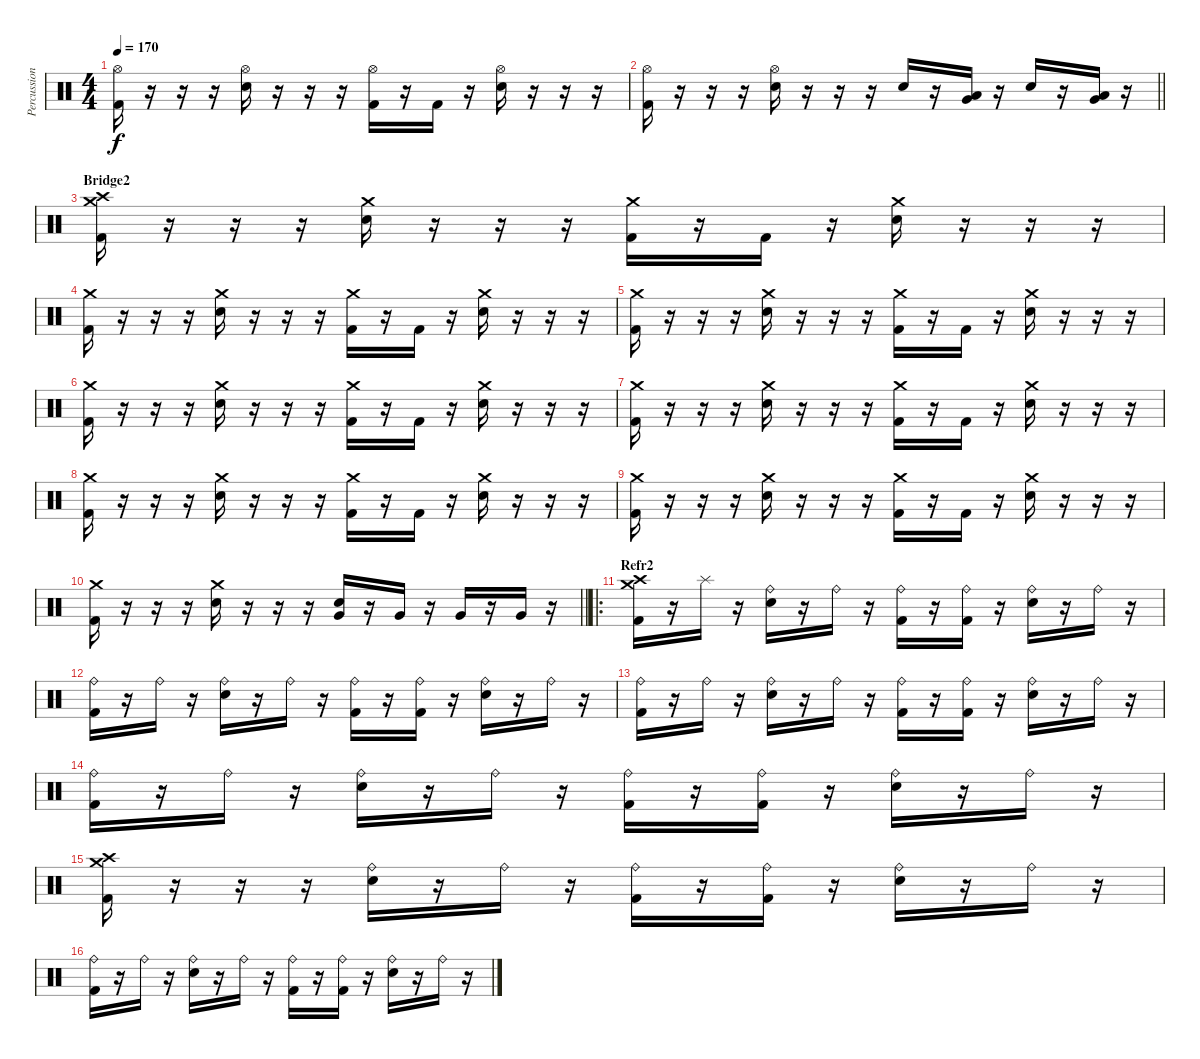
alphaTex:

\track ("Percussion" "Percussion") {instrument percussion}
\staff {score}
\articulation defaults
\ts (4 4)
\tempo 170
\clef neutral
\ks c
("Hi-Hat (open)" "Kick (hit) 2").16{dy f} r.16 r.16 r.16 ("Hi-Hat (open)" "Electric Snare (hit)").16 r.16 r.16 r.16 ("Hi-Hat (open)" "Kick (hit) 2").16 r.16 "Kick (hit) 2".16 r.16 ("Hi-Hat (open)" "Electric Snare (hit)").16 r.16 r.16 r.16 |
\barLineRight lightlight
("Hi-Hat (open)" "Kick (hit) 2").16 r.16 r.16 r.16 ("Hi-Hat (open)" "Electric Snare (hit)").16 r.16 r.16 r.16 "Electric Snare (hit)".16 r.16 ("Very Low Tom (hit)" "Low Floor Tom (hit)").16 r.16 "Electric Snare (hit)".16 r.16 ("Very Low Tom (hit)" "Low Floor Tom (hit)").16 r.16 |
\section ("" "Bridge2")
("Crash medium (hit)" "Crash high (hit)" "Kick (hit) 2").16 r.16 r.16 r.16 ("Crash medium (hit)" "Electric Snare (hit)").16 r.16 r.16 r.16 ("Crash medium (hit)" "Kick (hit) 2").16 r.16 "Kick (hit) 2".16 r.16 ("Crash medium (hit)" "Electric Snare (hit)").16 r.16 r.16 r.16 |
("Crash medium (hit)" "Kick (hit) 2").16 r.16 r.16 r.16 ("Crash medium (hit)" "Electric Snare (hit)").16 r.16 r.16 r.16 ("Crash medium (hit)" "Kick (hit) 2").16 r.16 "Kick (hit) 2".16 r.16 ("Crash medium (hit)" "Electric Snare (hit)").16 r.16 r.16 r.16 |
("Crash medium (hit)" "Kick (hit) 2").16 r.16 r.16 r.16 ("Crash medium (hit)" "Electric Snare (hit)").16 r.16 r.16 r.16 ("Crash medium (hit)" "Kick (hit) 2").16 r.16 "Kick (hit) 2".16 r.16 ("Crash medium (hit)" "Electric Snare (hit)").16 r.16 r.16 r.16 |
("Crash medium (hit)" "Kick (hit) 2").16 r.16 r.16 r.16 ("Crash medium (hit)" "Electric Snare (hit)").16 r.16 r.16 r.16 ("Crash medium (hit)" "Kick (hit) 2").16 r.16 "Kick (hit) 2".16 r.16 ("Crash medium (hit)" "Electric Snare (hit)").16 r.16 r.16 r.16 |
("Crash medium (hit)" "Kick (hit) 2").16 r.16 r.16 r.16 ("Crash medium (hit)" "Electric Snare (hit)").16 r.16 r.16 r.16 ("Crash medium (hit)" "Kick (hit) 2").16 r.16 "Kick (hit) 2".16 r.16 ("Crash medium (hit)" "Electric Snare (hit)").16 r.16 r.16 r.16 |
("Crash medium (hit)" "Kick (hit) 2").16 r.16 r.16 r.16 ("Crash medium (hit)" "Electric Snare (hit)").16 r.16 r.16 r.16 ("Crash medium (hit)" "Kick (hit) 2").16 r.16 "Kick (hit) 2".16 r.16 ("Crash medium (hit)" "Electric Snare (hit)").16 r.16 r.16 r.16 |
("Crash medium (hit)" "Kick (hit) 2").16 r.16 r.16 r.16 ("Crash medium (hit)" "Electric Snare (hit)").16 r.16 r.16 r.16 ("Crash medium (hit)" "Kick (hit) 2").16 r.16 "Kick (hit) 2".16 r.16 ("Crash medium (hit)" "Electric Snare (hit)").16 r.16 r.16 r.16 |
\barLineRight lightlight
("Crash medium (hit)" "Kick (hit) 2").16 r.16 r.16 r.16 ("Crash medium (hit)" "Electric Snare (hit)").16 r.16 r.16 r.16 ("Electric Snare (hit)" "Very Low Tom (hit)").16 r.16 "Very Low Tom (hit)".16 r.16 "Very Low Tom (hit)".16 r.16 "Very Low Tom (hit)".16 r.16 |
\ro
\section ("" "Refr2")
("Crash medium (hit)" "Crash high (hit)" "Kick (hit) 2").16 r.16 "Splash (hit)".16 r.16 ("Ride (bell)" "Electric Snare (hit)").16 r.16 "Ride (bell)".16 r.16 ("Ride (bell)" "Kick (hit) 2").16 r.16 ("Ride (bell)" "Kick (hit) 2").16 r.16 ("Ride (bell)" "Electric Snare (hit)").16 r.16 "Ride (bell)".16 r.16 |
("Ride (bell)" "Kick (hit) 2").16 r.16 "Ride (bell)".16 r.16 ("Ride (bell)" "Electric Snare (hit)").16 r.16 "Ride (bell)".16 r.16 ("Ride (bell)" "Kick (hit) 2").16 r.16 ("Ride (bell)" "Kick (hit) 2").16 r.16 ("Ride (bell)" "Electric Snare (hit)").16 r.16 "Ride (bell)".16 r.16 |
("Ride (bell)" "Kick (hit) 2").16 r.16 "Ride (bell)".16 r.16 ("Ride (bell)" "Electric Snare (hit)").16 r.16 "Ride (bell)".16 r.16 ("Ride (bell)" "Kick (hit) 2").16 r.16 ("Ride (bell)" "Kick (hit) 2").16 r.16 ("Ride (bell)" "Electric Snare (hit)").16 r.16 "Ride (bell)".16 r.16 |
("Ride (bell)" "Kick (hit) 2").16 r.16 "Ride (bell)".16 r.16 ("Ride (bell)" "Electric Snare (hit)").16 r.16 "Ride (bell)".16 r.16 ("Ride (bell)" "Kick (hit) 2").16 r.16 ("Ride (bell)" "Kick (hit) 2").16 r.16 ("Ride (bell)" "Electric Snare (hit)").16 r.16 "Ride (bell)".16 r.16 |
("Crash medium (hit)" "Crash high (hit)" "Kick (hit) 2").16 r.16 r.16 r.16 ("Ride (bell)" "Electric Snare (hit)").16 r.16 "Ride (bell)".16 r.16 ("Ride (bell)" "Kick (hit) 2").16 r.16 ("Ride (bell)" "Kick (hit) 2").16 r.16 ("Ride (bell)" "Electric Snare (hit)").16 r.16 "Ride (bell)".16 r.16 |
("Ride (bell)" "Kick (hit) 2").16 r.16 "Ride (bell)".16 r.16 ("Ride (bell)" "Electric Snare (hit)").16 r.16 "Ride (bell)".16 r.16 ("Ride (bell)" "Kick (hit) 2").16 r.16 ("Ride (bell)" "Kick (hit) 2").16 r.16 ("Ride (bell)" "Electric Snare (hit)").16 r.16 "Ride (bell)".16 r.16
